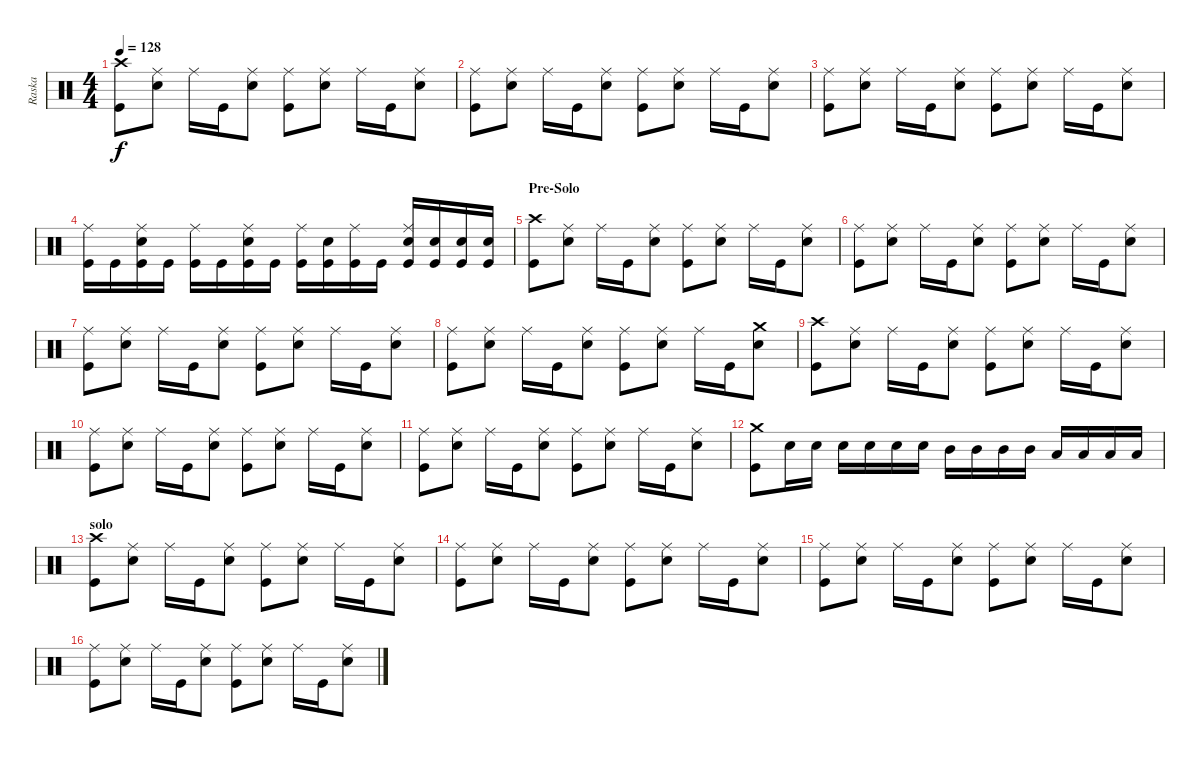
\track ("Raska" "Raska") {instrument percussion}
\staff {score}
\articulation defaults
\ts (4 4)
\tempo 128
\clef neutral
\ks c
("Crash high (hit)" "Kick (hit)").8{dy f} ("Ride (middle)" "Electric Snare (hit)").8 "Ride (middle)".16 "Kick (hit)".16 ("Ride (middle)" "Electric Snare (hit)").8 ("Ride (middle)" "Kick (hit)").8 ("Ride (middle)" "Electric Snare (hit)").8 "Ride (middle)".16 "Kick (hit)".16 ("Ride (middle)" "Electric Snare (hit)").8 |
("Ride (middle)" "Kick (hit)").8 ("Ride (middle)" "Electric Snare (hit)").8 "Ride (middle)".16 "Kick (hit)".16 ("Ride (middle)" "Electric Snare (hit)").8 ("Ride (middle)" "Kick (hit)").8 ("Ride (middle)" "Electric Snare (hit)").8 "Ride (middle)".16 "Kick (hit)".16 ("Ride (middle)" "Electric Snare (hit)").8 |
("Ride (middle)" "Kick (hit)").8 ("Ride (middle)" "Electric Snare (hit)").8 "Ride (middle)".16 "Kick (hit)".16 ("Ride (middle)" "Electric Snare (hit)").8 ("Ride (middle)" "Kick (hit)").8 ("Ride (middle)" "Electric Snare (hit)").8 "Ride (middle)".16 "Kick (hit)".16 ("Ride (middle)" "Electric Snare (hit)").8 |
("Ride (middle)" "Kick (hit)").16 "Kick (hit)".16 ("Ride (middle)" "Electric Snare (hit)" "Kick (hit)").16 "Kick (hit)".16 ("Ride (middle)" "Kick (hit)").16 "Kick (hit)".16 ("Ride (middle)" "Electric Snare (hit)" "Kick (hit)").16 "Kick (hit)".16 ("Ride (middle)" "Kick (hit)").16 ("Electric Snare (hit)" "Kick (hit)").16 ("Ride (middle)" "Kick (hit)").16 "Kick (hit)".16 ("Ride (middle)" "Electric Snare (hit)" "Kick (hit)").16 ("Electric Snare (hit)" "Kick (hit)").16 ("Electric Snare (hit)" "Kick (hit)").16 ("Electric Snare (hit)" "Kick (hit)").16 |
\section ("" "Pre-Solo")
("Crash high (hit)" "Kick (hit)").8 ("Ride (middle)" "Electric Snare (hit)").8 "Ride (middle)".16 "Kick (hit)".16 ("Ride (middle)" "Electric Snare (hit)").8 ("Ride (middle)" "Kick (hit)").8 ("Ride (middle)" "Electric Snare (hit)").8 "Ride (middle)".16 "Kick (hit)".16 ("Ride (middle)" "Electric Snare (hit)").8 |
("Ride (middle)" "Kick (hit)").8 ("Ride (middle)" "Electric Snare (hit)").8 "Ride (middle)".16 "Kick (hit)".16 ("Ride (middle)" "Electric Snare (hit)").8 ("Ride (middle)" "Kick (hit)").8 ("Ride (middle)" "Electric Snare (hit)").8 "Ride (middle)".16 "Kick (hit)".16 ("Ride (middle)" "Electric Snare (hit)").8 |
("Ride (middle)" "Kick (hit)").8 ("Ride (middle)" "Electric Snare (hit)").8 "Ride (middle)".16 "Kick (hit)".16 ("Ride (middle)" "Electric Snare (hit)").8 ("Ride (middle)" "Kick (hit)").8 ("Ride (middle)" "Electric Snare (hit)").8 "Ride (middle)".16 "Kick (hit)".16 ("Ride (middle)" "Electric Snare (hit)").8 |
("Ride (middle)" "Kick (hit)").8 ("Ride (middle)" "Electric Snare (hit)").8 "Ride (middle)".16 "Kick (hit)".16 ("Ride (middle)" "Electric Snare (hit)").8 ("Ride (middle)" "Kick (hit)").8 ("Ride (middle)" "Electric Snare (hit)").8 "Ride (middle)".16 "Kick (hit)".16 ("Crash medium (hit)" "Electric Snare (hit)").8 |
("Crash high (hit)" "Kick (hit)").8 ("Ride (middle)" "Electric Snare (hit)").8 "Ride (middle)".16 "Kick (hit)".16 ("Ride (middle)" "Electric Snare (hit)").8 ("Ride (middle)" "Kick (hit)").8 ("Ride (middle)" "Electric Snare (hit)").8 "Ride (middle)".16 "Kick (hit)".16 ("Ride (middle)" "Electric Snare (hit)").8 |
("Ride (middle)" "Kick (hit)").8 ("Ride (middle)" "Electric Snare (hit)").8 "Ride (middle)".16 "Kick (hit)".16 ("Ride (middle)" "Electric Snare (hit)").8 ("Ride (middle)" "Kick (hit)").8 ("Ride (middle)" "Electric Snare (hit)").8 "Ride (middle)".16 "Kick (hit)".16 ("Ride (middle)" "Electric Snare (hit)").8 |
("Ride (middle)" "Kick (hit)").8 ("Ride (middle)" "Electric Snare (hit)").8 "Ride (middle)".16 "Kick (hit)".16 ("Ride (middle)" "Electric Snare (hit)").8 ("Ride (middle)" "Kick (hit)").8 ("Ride (middle)" "Electric Snare (hit)").8 "Ride (middle)".16 "Kick (hit)".16 ("Ride (middle)" "Electric Snare (hit)").8 |
("Crash medium (hit)" "Kick (hit)").8 "Electric Snare (hit)".16 "Electric Snare (hit)".16 "Electric Snare (hit)".16 "Electric Snare (hit)".16 "Electric Snare (hit)".16 "Electric Snare (hit)".16 "Mid Tom (hit)".16 "Mid Tom (hit)".16 "Mid Tom (hit)".16 "Mid Tom (hit)".16 "Low Tom (hit)".16 "Low Tom (hit)".16 "Low Tom (hit)".16 "Low Tom (hit)".16 |
\section ("" "solo")
("Crash high (hit)" "Kick (hit)").8 ("Ride (middle)" "Electric Snare (hit)").8 "Ride (middle)".16 "Kick (hit)".16 ("Ride (middle)" "Electric Snare (hit)").8 ("Ride (middle)" "Kick (hit)").8 ("Ride (middle)" "Electric Snare (hit)").8 "Ride (middle)".16 "Kick (hit)".16 ("Ride (middle)" "Electric Snare (hit)").8 |
("Ride (middle)" "Kick (hit)").8 ("Ride (middle)" "Electric Snare (hit)").8 "Ride (middle)".16 "Kick (hit)".16 ("Ride (middle)" "Electric Snare (hit)").8 ("Ride (middle)" "Kick (hit)").8 ("Ride (middle)" "Electric Snare (hit)").8 "Ride (middle)".16 "Kick (hit)".16 ("Ride (middle)" "Electric Snare (hit)").8 |
("Ride (middle)" "Kick (hit)").8 ("Ride (middle)" "Electric Snare (hit)").8 "Ride (middle)".16 "Kick (hit)".16 ("Ride (middle)" "Electric Snare (hit)").8 ("Ride (middle)" "Kick (hit)").8 ("Ride (middle)" "Electric Snare (hit)").8 "Ride (middle)".16 "Kick (hit)".16 ("Ride (middle)" "Electric Snare (hit)").8 |
("Ride (middle)" "Kick (hit)").8 ("Ride (middle)" "Electric Snare (hit)").8 "Ride (middle)".16 "Kick (hit)".16 ("Ride (middle)" "Electric Snare (hit)").8 ("Ride (middle)" "Kick (hit)").8 ("Ride (middle)" "Electric Snare (hit)").8 "Ride (middle)".16 "Kick (hit)".16 ("Ride (middle)" "Electric Snare (hit)").8
